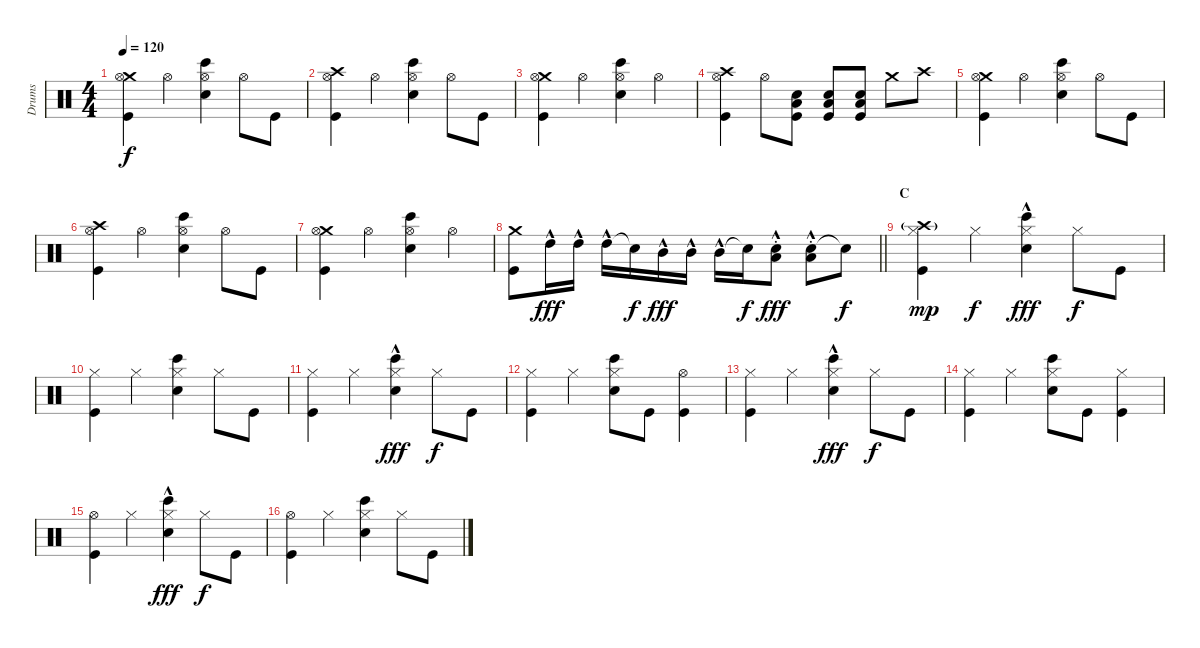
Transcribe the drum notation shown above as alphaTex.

\track ("Drums" "Drums") {instrument percussion}
\staff {score}
\articulation defaults
\ts (4 4)
\tempo 120
\clef neutral
\ks c
("Crash medium (hit)" "Hi-Hat (open)" "Kick (hit)").4{dy f} "Hi-Hat (open)".4 ("Hi-Hat (open)" "Snare (hit) 2" "Bongo High (hit)").4 "Hi-Hat (open)".8 "Kick (hit)".8 |
("Crash high (hit)" "Hi-Hat (open)" "Kick (hit)").4 "Hi-Hat (open)".4 ("Hi-Hat (open)" "Snare (hit) 2" "Bongo High (hit)").4 "Hi-Hat (open)".8 "Kick (hit)".8 |
("Crash medium (hit)" "Hi-Hat (open)" "Kick (hit)").4 "Hi-Hat (open)".4 ("Hi-Hat (open)" "Snare (hit) 2" "Bongo High (hit)").4 "Hi-Hat (open)".4 |
("Crash high (hit)" "Hi-Hat (open)" "Kick (hit)").4 "Hi-Hat (open)".8 ("Snare (hit) 2" "Low Floor Tom (hit)" "Kick (hit)").8 ("Snare (hit) 2" "Low Floor Tom (hit)" "Kick (hit)").8 ("Snare (hit) 2" "Low Floor Tom (hit)" "Kick (hit)").8 "Crash medium (hit)".8 "Crash high (hit)".8 |
("Crash medium (hit)" "Hi-Hat (open)" "Kick (hit)").4 "Hi-Hat (open)".4 ("Hi-Hat (open)" "Snare (hit) 2" "Bongo High (hit)").4 "Hi-Hat (open)".8 "Kick (hit)".8 |
("Crash high (hit)" "Hi-Hat (open)" "Kick (hit)").4 "Hi-Hat (open)".4 ("Hi-Hat (open)" "Snare (hit) 2" "Bongo High (hit)").4 "Hi-Hat (open)".8 "Kick (hit)".8 |
("Crash medium (hit)" "Hi-Hat (open)" "Kick (hit)").4 "Hi-Hat (open)".4 ("Hi-Hat (open)" "Snare (hit) 2" "Bongo High (hit)").4 "Hi-Hat (open)".4 |
\barLineRight lightlight
("Crash medium (hit)" "Kick (hit)").8 "High Tom (hit)"{hac}.16{dy fff} "High Tom (hit)"{hac}.16 "High Tom (hit)"{hac}.16 "Snare (hit)"{t}.16{dy f} "Mid Tom (hit)"{hac}.16{dy fff} "Mid Tom (hit)"{hac}.16 "Mid Tom (hit)"{hac}.16 "Snare (hit)"{t}.16{dy f} ("Snare (hit) 2"{hac st} "Low Floor Tom (hit)").8{dy fff} ("Snare (hit) 2"{hac st} "Low Floor Tom (hit)").8 "Snare (hit)"{t}.8{dy f} |
\section ("" "C")
("Crash high (hit)"{g} "Hi-Hat (closed)" "Kick (hit)").4{dy mp} "Hi-Hat (closed)".4{dy f} ("Hi-Hat (closed)" "Snare (hit) 2"{hac} "Bongo High (hit)").4{dy fff} "Hi-Hat (closed)".8{dy f} "Kick (hit)".8 |
("Hi-Hat (closed)" "Kick (hit)").4 "Hi-Hat (closed)".4 ("Hi-Hat (closed)" "Snare (hit) 2" "Bongo High (hit)").4 "Hi-Hat (closed)".8 "Kick (hit)".8 |
("Hi-Hat (closed)" "Kick (hit)").4 "Hi-Hat (closed)".4 ("Hi-Hat (closed)" "Snare (hit) 2"{hac} "Bongo High (hit)").4{dy fff} "Hi-Hat (closed)".8{dy f} "Kick (hit)".8 |
("Hi-Hat (closed)" "Kick (hit)").4 "Hi-Hat (closed)".4 ("Hi-Hat (closed)" "Snare (hit) 2" "Bongo High (hit)").8 "Kick (hit)".8 ("Hi-Hat (open)" "Kick (hit)").4 |
("Hi-Hat (closed)" "Kick (hit)").4 "Hi-Hat (closed)".4 ("Hi-Hat (closed)" "Snare (hit) 2"{hac} "Bongo High (hit)").4{dy fff} "Hi-Hat (closed)".8{dy f} "Kick (hit)".8 |
("Hi-Hat (closed)" "Kick (hit)").4 "Hi-Hat (closed)".4 ("Hi-Hat (closed)" "Snare (hit) 2" "Bongo High (hit)").8 "Kick (hit)".8 ("Hi-Hat (closed)" "Kick (hit)").4 |
("Hi-Hat (open)" "Kick (hit)").4 "Hi-Hat (closed)".4 ("Hi-Hat (closed)" "Snare (hit) 2"{hac} "Bongo High (hit)").4{dy fff} "Hi-Hat (closed)".8{dy f} "Kick (hit)".8 |
("Hi-Hat (open)" "Kick (hit)").4 "Hi-Hat (closed)".4 ("Hi-Hat (closed)" "Snare (hit) 2" "Bongo High (hit)").4 "Hi-Hat (closed)".8 "Kick (hit)".8
